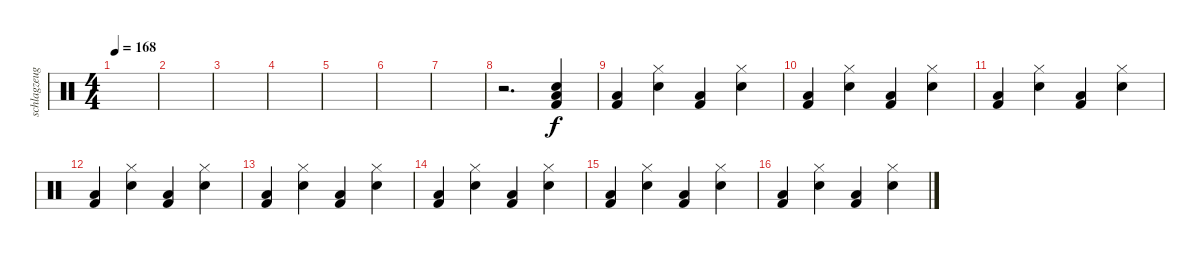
\track ("schlagzeug" "schlagzeug") {instrument percussion}
\staff {score}
\articulation defaults
\ts (4 4)
\tempo 168
\clef neutral
\ks c
|
|
|
|
|
|
|
r.2{d} ("Electric Snare (hit)" "Low Floor Tom (hit)" "Kick (hit) 2").4 |
("Low Floor Tom (hit)" "Kick (hit) 2").4 ("Electric Snare (hit)" "Hi-Hat (closed)").4 ("Low Floor Tom (hit)" "Kick (hit) 2").4 ("Electric Snare (hit)" "Hi-Hat (closed)").4 |
("Low Floor Tom (hit)" "Kick (hit) 2").4 ("Electric Snare (hit)" "Hi-Hat (closed)").4 ("Low Floor Tom (hit)" "Kick (hit) 2").4 ("Electric Snare (hit)" "Hi-Hat (closed)").4 |
("Low Floor Tom (hit)" "Kick (hit) 2").4 ("Electric Snare (hit)" "Hi-Hat (closed)").4 ("Low Floor Tom (hit)" "Kick (hit) 2").4 ("Electric Snare (hit)" "Hi-Hat (closed)").4 |
("Low Floor Tom (hit)" "Kick (hit) 2").4 ("Electric Snare (hit)" "Hi-Hat (closed)").4 ("Low Floor Tom (hit)" "Kick (hit) 2").4 ("Electric Snare (hit)" "Hi-Hat (closed)").4 |
("Low Floor Tom (hit)" "Kick (hit) 2").4 ("Electric Snare (hit)" "Hi-Hat (closed)").4 ("Low Floor Tom (hit)" "Kick (hit) 2").4 ("Electric Snare (hit)" "Hi-Hat (closed)").4 |
("Low Floor Tom (hit)" "Kick (hit) 2").4 ("Electric Snare (hit)" "Hi-Hat (closed)").4 ("Low Floor Tom (hit)" "Kick (hit) 2").4 ("Electric Snare (hit)" "Hi-Hat (closed)").4 |
("Low Floor Tom (hit)" "Kick (hit) 2").4 ("Electric Snare (hit)" "Hi-Hat (closed)").4 ("Low Floor Tom (hit)" "Kick (hit) 2").4 ("Electric Snare (hit)" "Hi-Hat (closed)").4 |
("Low Floor Tom (hit)" "Kick (hit) 2").4 ("Electric Snare (hit)" "Hi-Hat (closed)").4 ("Low Floor Tom (hit)" "Kick (hit) 2").4 ("Electric Snare (hit)" "Hi-Hat (closed)").4
